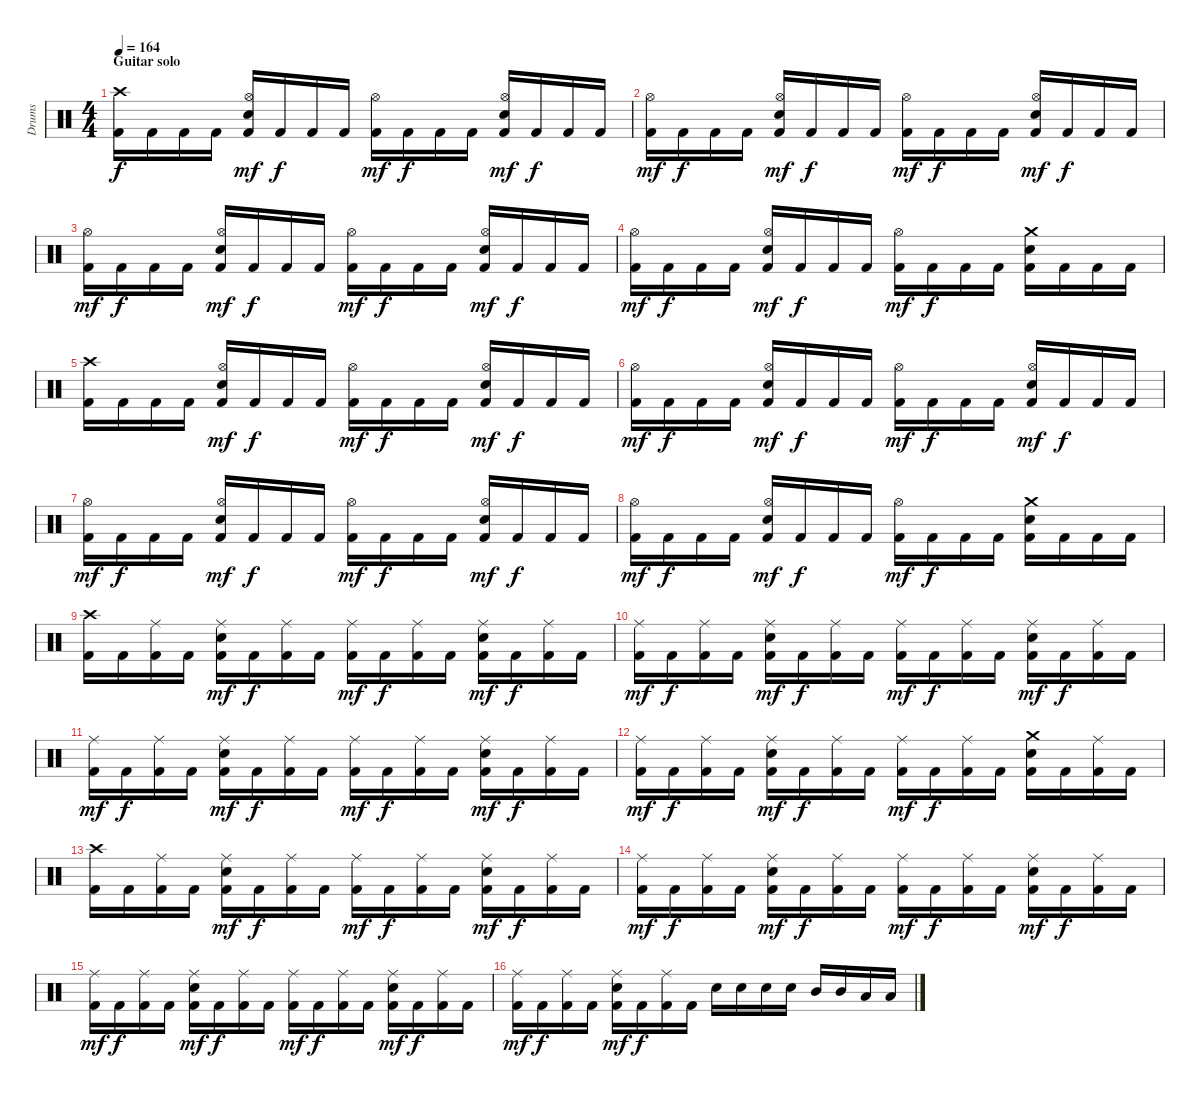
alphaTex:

\track ("Drums" "Drums") {instrument percussion}
\staff {score}
\articulation defaults
\ts (4 4)
\section ("" "Guitar solo")
\tempo 164
\clef neutral
\ks c
("Crash high (hit)" "Kick (hit) 2").16{dy f} "Kick (hit) 2".16 "Kick (hit) 2".16 "Kick (hit) 2".16 ("Hi-Hat (open)" "Electric Snare (hit)" "Kick (hit) 2").16{dy mf} "Kick (hit) 2".16{dy f} "Kick (hit) 2".16 "Kick (hit) 2".16 ("Hi-Hat (open)" "Kick (hit) 2").16{dy mf} "Kick (hit) 2".16{dy f} "Kick (hit) 2".16 "Kick (hit) 2".16 ("Hi-Hat (open)" "Electric Snare (hit)" "Kick (hit) 2").16{dy mf} "Kick (hit) 2".16{dy f} "Kick (hit) 2".16 "Kick (hit) 2".16 |
("Hi-Hat (open)" "Kick (hit) 2").16{dy mf} "Kick (hit) 2".16{dy f} "Kick (hit) 2".16 "Kick (hit) 2".16 ("Hi-Hat (open)" "Electric Snare (hit)" "Kick (hit) 2").16{dy mf} "Kick (hit) 2".16{dy f} "Kick (hit) 2".16 "Kick (hit) 2".16 ("Hi-Hat (open)" "Kick (hit) 2").16{dy mf} "Kick (hit) 2".16{dy f} "Kick (hit) 2".16 "Kick (hit) 2".16 ("Hi-Hat (open)" "Electric Snare (hit)" "Kick (hit) 2").16{dy mf} "Kick (hit) 2".16{dy f} "Kick (hit) 2".16 "Kick (hit) 2".16 |
("Hi-Hat (open)" "Kick (hit) 2").16{dy mf} "Kick (hit) 2".16{dy f} "Kick (hit) 2".16 "Kick (hit) 2".16 ("Hi-Hat (open)" "Electric Snare (hit)" "Kick (hit) 2").16{dy mf} "Kick (hit) 2".16{dy f} "Kick (hit) 2".16 "Kick (hit) 2".16 ("Hi-Hat (open)" "Kick (hit) 2").16{dy mf} "Kick (hit) 2".16{dy f} "Kick (hit) 2".16 "Kick (hit) 2".16 ("Hi-Hat (open)" "Electric Snare (hit)" "Kick (hit) 2").16{dy mf} "Kick (hit) 2".16{dy f} "Kick (hit) 2".16 "Kick (hit) 2".16 |
("Hi-Hat (open)" "Kick (hit) 2").16{dy mf} "Kick (hit) 2".16{dy f} "Kick (hit) 2".16 "Kick (hit) 2".16 ("Hi-Hat (open)" "Electric Snare (hit)" "Kick (hit) 2").16{dy mf} "Kick (hit) 2".16{dy f} "Kick (hit) 2".16 "Kick (hit) 2".16 ("Hi-Hat (open)" "Kick (hit) 2").16{dy mf} "Kick (hit) 2".16{dy f} "Kick (hit) 2".16 "Kick (hit) 2".16 ("Crash medium (hit)" "Electric Snare (hit)" "Kick (hit) 2").16 "Kick (hit) 2".16 "Kick (hit) 2".16 "Kick (hit) 2".16 |
("Crash high (hit)" "Kick (hit) 2").16 "Kick (hit) 2".16 "Kick (hit) 2".16 "Kick (hit) 2".16 ("Hi-Hat (open)" "Electric Snare (hit)" "Kick (hit) 2").16{dy mf} "Kick (hit) 2".16{dy f} "Kick (hit) 2".16 "Kick (hit) 2".16 ("Hi-Hat (open)" "Kick (hit) 2").16{dy mf} "Kick (hit) 2".16{dy f} "Kick (hit) 2".16 "Kick (hit) 2".16 ("Hi-Hat (open)" "Electric Snare (hit)" "Kick (hit) 2").16{dy mf} "Kick (hit) 2".16{dy f} "Kick (hit) 2".16 "Kick (hit) 2".16 |
("Hi-Hat (open)" "Kick (hit) 2").16{dy mf} "Kick (hit) 2".16{dy f} "Kick (hit) 2".16 "Kick (hit) 2".16 ("Hi-Hat (open)" "Electric Snare (hit)" "Kick (hit) 2").16{dy mf} "Kick (hit) 2".16{dy f} "Kick (hit) 2".16 "Kick (hit) 2".16 ("Hi-Hat (open)" "Kick (hit) 2").16{dy mf} "Kick (hit) 2".16{dy f} "Kick (hit) 2".16 "Kick (hit) 2".16 ("Hi-Hat (open)" "Electric Snare (hit)" "Kick (hit) 2").16{dy mf} "Kick (hit) 2".16{dy f} "Kick (hit) 2".16 "Kick (hit) 2".16 |
("Hi-Hat (open)" "Kick (hit) 2").16{dy mf} "Kick (hit) 2".16{dy f} "Kick (hit) 2".16 "Kick (hit) 2".16 ("Hi-Hat (open)" "Electric Snare (hit)" "Kick (hit) 2").16{dy mf} "Kick (hit) 2".16{dy f} "Kick (hit) 2".16 "Kick (hit) 2".16 ("Hi-Hat (open)" "Kick (hit) 2").16{dy mf} "Kick (hit) 2".16{dy f} "Kick (hit) 2".16 "Kick (hit) 2".16 ("Hi-Hat (open)" "Electric Snare (hit)" "Kick (hit) 2").16{dy mf} "Kick (hit) 2".16{dy f} "Kick (hit) 2".16 "Kick (hit) 2".16 |
("Hi-Hat (open)" "Kick (hit) 2").16{dy mf} "Kick (hit) 2".16{dy f} "Kick (hit) 2".16 "Kick (hit) 2".16 ("Hi-Hat (open)" "Electric Snare (hit)" "Kick (hit) 2").16{dy mf} "Kick (hit) 2".16{dy f} "Kick (hit) 2".16 "Kick (hit) 2".16 ("Hi-Hat (open)" "Kick (hit) 2").16{dy mf} "Kick (hit) 2".16{dy f} "Kick (hit) 2".16 "Kick (hit) 2".16 ("Crash medium (hit)" "Electric Snare (hit)" "Kick (hit) 2").16 "Kick (hit) 2".16 "Kick (hit) 2".16 "Kick (hit) 2".16 |
("Crash high (hit)" "Kick (hit) 2").16 "Kick (hit) 2".16 ("Ride (middle)" "Kick (hit) 2").16 "Kick (hit) 2".16 ("Ride (middle)" "Electric Snare (hit)" "Kick (hit) 2").16{dy mf} "Kick (hit) 2".16{dy f} ("Ride (middle)" "Kick (hit) 2").16 "Kick (hit) 2".16 ("Ride (middle)" "Kick (hit) 2").16{dy mf} "Kick (hit) 2".16{dy f} ("Ride (middle)" "Kick (hit) 2").16 "Kick (hit) 2".16 ("Ride (middle)" "Electric Snare (hit)" "Kick (hit) 2").16{dy mf} "Kick (hit) 2".16{dy f} ("Ride (middle)" "Kick (hit) 2").16 "Kick (hit) 2".16 |
("Ride (middle)" "Kick (hit) 2").16{dy mf} "Kick (hit) 2".16{dy f} ("Ride (middle)" "Kick (hit) 2").16 "Kick (hit) 2".16 ("Ride (middle)" "Electric Snare (hit)" "Kick (hit) 2").16{dy mf} "Kick (hit) 2".16{dy f} ("Ride (middle)" "Kick (hit) 2").16 "Kick (hit) 2".16 ("Ride (middle)" "Kick (hit) 2").16{dy mf} "Kick (hit) 2".16{dy f} ("Ride (middle)" "Kick (hit) 2").16 "Kick (hit) 2".16 ("Ride (middle)" "Electric Snare (hit)" "Kick (hit) 2").16{dy mf} "Kick (hit) 2".16{dy f} ("Ride (middle)" "Kick (hit) 2").16 "Kick (hit) 2".16 |
("Ride (middle)" "Kick (hit) 2").16{dy mf} "Kick (hit) 2".16{dy f} ("Ride (middle)" "Kick (hit) 2").16 "Kick (hit) 2".16 ("Ride (middle)" "Electric Snare (hit)" "Kick (hit) 2").16{dy mf} "Kick (hit) 2".16{dy f} ("Ride (middle)" "Kick (hit) 2").16 "Kick (hit) 2".16 ("Ride (middle)" "Kick (hit) 2").16{dy mf} "Kick (hit) 2".16{dy f} ("Ride (middle)" "Kick (hit) 2").16 "Kick (hit) 2".16 ("Ride (middle)" "Electric Snare (hit)" "Kick (hit) 2").16{dy mf} "Kick (hit) 2".16{dy f} ("Ride (middle)" "Kick (hit) 2").16 "Kick (hit) 2".16 |
("Ride (middle)" "Kick (hit) 2").16{dy mf} "Kick (hit) 2".16{dy f} ("Ride (middle)" "Kick (hit) 2").16 "Kick (hit) 2".16 ("Ride (middle)" "Electric Snare (hit)" "Kick (hit) 2").16{dy mf} "Kick (hit) 2".16{dy f} ("Ride (middle)" "Kick (hit) 2").16 "Kick (hit) 2".16 ("Ride (middle)" "Kick (hit) 2").16{dy mf} "Kick (hit) 2".16{dy f} ("Ride (middle)" "Kick (hit) 2").16 "Kick (hit) 2".16 ("Crash medium (hit)" "Electric Snare (hit)" "Kick (hit) 2").16 "Kick (hit) 2".16 ("Ride (middle)" "Kick (hit) 2").16 "Kick (hit) 2".16 |
("Crash high (hit)" "Kick (hit) 2").16 "Kick (hit) 2".16 ("Ride (middle)" "Kick (hit) 2").16 "Kick (hit) 2".16 ("Ride (middle)" "Electric Snare (hit)" "Kick (hit) 2").16{dy mf} "Kick (hit) 2".16{dy f} ("Ride (middle)" "Kick (hit) 2").16 "Kick (hit) 2".16 ("Ride (middle)" "Kick (hit) 2").16{dy mf} "Kick (hit) 2".16{dy f} ("Ride (middle)" "Kick (hit) 2").16 "Kick (hit) 2".16 ("Ride (middle)" "Electric Snare (hit)" "Kick (hit) 2").16{dy mf} "Kick (hit) 2".16{dy f} ("Ride (middle)" "Kick (hit) 2").16 "Kick (hit) 2".16 |
("Ride (middle)" "Kick (hit) 2").16{dy mf} "Kick (hit) 2".16{dy f} ("Ride (middle)" "Kick (hit) 2").16 "Kick (hit) 2".16 ("Ride (middle)" "Electric Snare (hit)" "Kick (hit) 2").16{dy mf} "Kick (hit) 2".16{dy f} ("Ride (middle)" "Kick (hit) 2").16 "Kick (hit) 2".16 ("Ride (middle)" "Kick (hit) 2").16{dy mf} "Kick (hit) 2".16{dy f} ("Ride (middle)" "Kick (hit) 2").16 "Kick (hit) 2".16 ("Ride (middle)" "Electric Snare (hit)" "Kick (hit) 2").16{dy mf} "Kick (hit) 2".16{dy f} ("Ride (middle)" "Kick (hit) 2").16 "Kick (hit) 2".16 |
("Ride (middle)" "Kick (hit) 2").16{dy mf} "Kick (hit) 2".16{dy f} ("Ride (middle)" "Kick (hit) 2").16 "Kick (hit) 2".16 ("Ride (middle)" "Electric Snare (hit)" "Kick (hit) 2").16{dy mf} "Kick (hit) 2".16{dy f} ("Ride (middle)" "Kick (hit) 2").16 "Kick (hit) 2".16 ("Ride (middle)" "Kick (hit) 2").16{dy mf} "Kick (hit) 2".16{dy f} ("Ride (middle)" "Kick (hit) 2").16 "Kick (hit) 2".16 ("Ride (middle)" "Electric Snare (hit)" "Kick (hit) 2").16{dy mf} "Kick (hit) 2".16{dy f} ("Ride (middle)" "Kick (hit) 2").16 "Kick (hit) 2".16 |
("Ride (middle)" "Kick (hit) 2").16{dy mf} "Kick (hit) 2".16{dy f} ("Ride (middle)" "Kick (hit) 2").16 "Kick (hit) 2".16 ("Ride (middle)" "Electric Snare (hit)" "Kick (hit) 2").16{dy mf} "Kick (hit) 2".16{dy f} ("Ride (middle)" "Kick (hit) 2").16 "Kick (hit) 2".16 "Electric Snare (hit)".16 "Electric Snare (hit)".16 "Electric Snare (hit)".16 "Electric Snare (hit)".16 "Mid Tom (hit)".16 "Mid Tom (hit)".16 "Low Tom (hit)".16 "Low Tom (hit)".16
